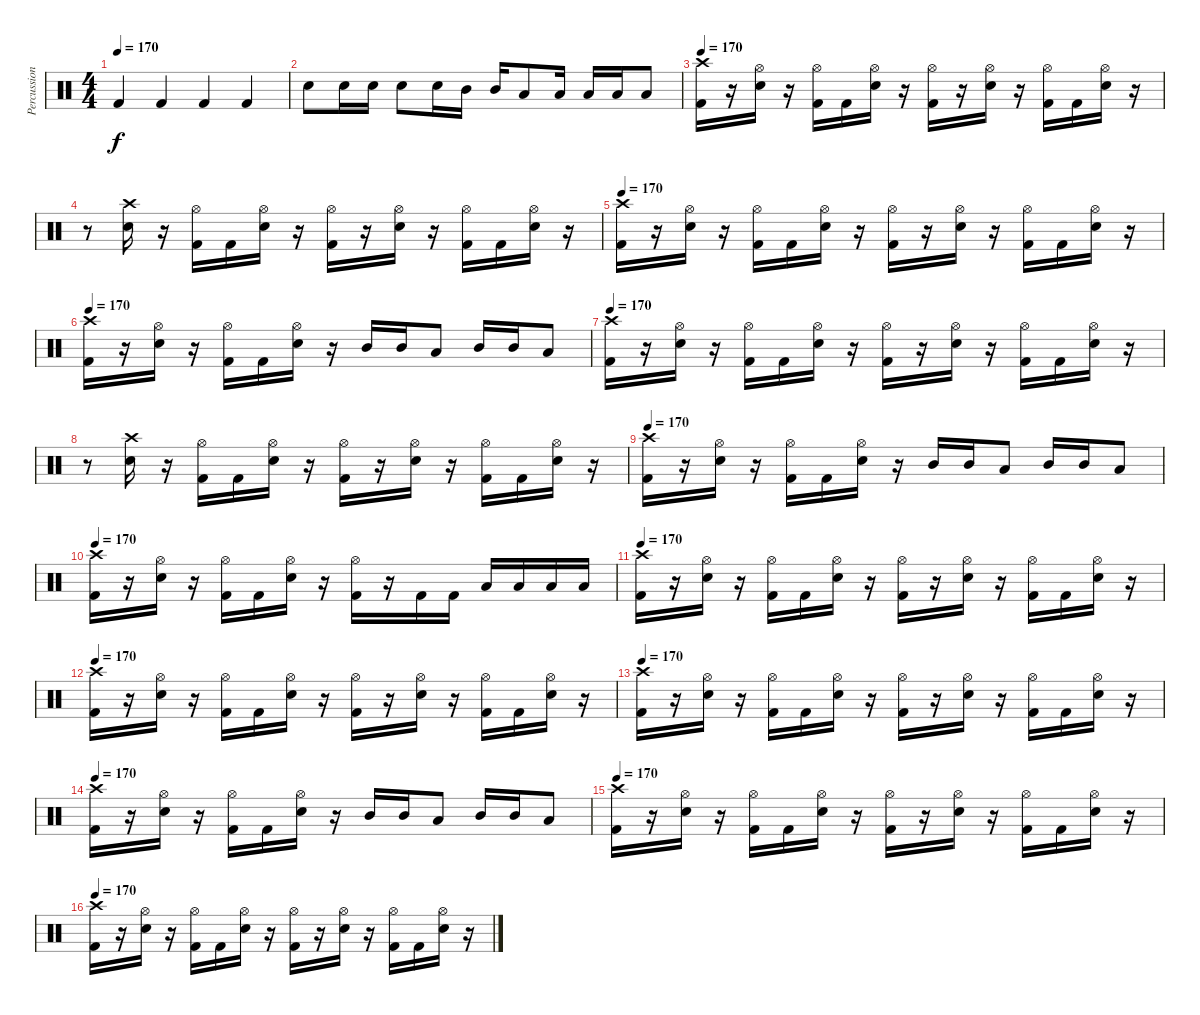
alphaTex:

\track ("Percussioni" "Percussion") {instrument percussion}
\staff {score}
\articulation defaults
\ts (4 4)
\tempo 170
\clef neutral
\ks c "Kick (hit) 2".4{dy f} "Kick (hit) 2".4 "Kick (hit) 2".4 "Kick (hit) 2".4
|
"Snare (hit) 2".8 "Snare (hit) 2".16 "Snare (hit) 2".16 "Snare (hit) 2".8 "Snare (hit) 2".16 "Mid Tom (hit)".16 "Mid Tom (hit)".16 "Low Tom (hit)".8 "Low Tom (hit)".16 "Low Tom (hit)".16 "Low Tom (hit)".16 "Low Tom (hit)".8 |
\tempo 170
("Kick (hit) 2" "Crash high (hit)").16 r.16 ("Snare (hit) 2" "Hi-Hat (open)").16 r.16 ("Kick (hit) 2" "Hi-Hat (open)").16 "Kick (hit) 2".16 ("Snare (hit) 2" "Hi-Hat (open)").16 r.16 ("Kick (hit) 2" "Hi-Hat (open)").16 r.16 ("Snare (hit) 2" "Hi-Hat (open)").16 r.16 ("Kick (hit) 2" "Hi-Hat (open)").16 "Kick (hit) 2".16 ("Snare (hit) 2" "Hi-Hat (open)").16 r.16 |
r.8 ("Snare (hit) 2" "Crash high (hit)").16 r.16 ("Kick (hit) 2" "Hi-Hat (open)").16 "Kick (hit) 2".16 ("Snare (hit) 2" "Hi-Hat (open)").16 r.16 ("Kick (hit) 2" "Hi-Hat (open)").16 r.16 ("Snare (hit) 2" "Hi-Hat (open)").16 r.16 ("Kick (hit) 2" "Hi-Hat (open)").16 "Kick (hit) 2".16 ("Snare (hit) 2" "Hi-Hat (open)").16 r.16 |
\tempo 170
("Kick (hit) 2" "Crash high (hit)").16 r.16 ("Snare (hit) 2" "Hi-Hat (open)").16 r.16 ("Kick (hit) 2" "Hi-Hat (open)").16 "Kick (hit) 2".16 ("Snare (hit) 2" "Hi-Hat (open)").16 r.16 ("Kick (hit) 2" "Hi-Hat (open)").16 r.16 ("Snare (hit) 2" "Hi-Hat (open)").16 r.16 ("Kick (hit) 2" "Hi-Hat (open)").16 "Kick (hit) 2".16 ("Snare (hit) 2" "Hi-Hat (open)").16 r.16 |
\tempo 170
("Kick (hit) 2" "Crash high (hit)").16 r.16 ("Snare (hit) 2" "Hi-Hat (open)").16 r.16 ("Kick (hit) 2" "Hi-Hat (open)").16 "Kick (hit) 2".16 ("Snare (hit) 2" "Hi-Hat (open)").16 r.16 "Mid Tom (hit)".16 "Mid Tom (hit)".16 "Low Tom (hit)".8 "Mid Tom (hit)".16 "Mid Tom (hit)".16 "Low Tom (hit)".8 |
\tempo 170
("Kick (hit) 2" "Crash high (hit)").16 r.16 ("Snare (hit) 2" "Hi-Hat (open)").16 r.16 ("Kick (hit) 2" "Hi-Hat (open)").16 "Kick (hit) 2".16 ("Snare (hit) 2" "Hi-Hat (open)").16 r.16 ("Kick (hit) 2" "Hi-Hat (open)").16 r.16 ("Snare (hit) 2" "Hi-Hat (open)").16 r.16 ("Kick (hit) 2" "Hi-Hat (open)").16 "Kick (hit) 2".16 ("Snare (hit) 2" "Hi-Hat (open)").16 r.16 |
r.8 ("Snare (hit) 2" "Crash high (hit)").16 r.16 ("Kick (hit) 2" "Hi-Hat (open)").16 "Kick (hit) 2".16 ("Snare (hit) 2" "Hi-Hat (open)").16 r.16 ("Kick (hit) 2" "Hi-Hat (open)").16 r.16 ("Snare (hit) 2" "Hi-Hat (open)").16 r.16 ("Kick (hit) 2" "Hi-Hat (open)").16 "Kick (hit) 2".16 ("Snare (hit) 2" "Hi-Hat (open)").16 r.16 |
\tempo 170
("Kick (hit) 2" "Crash high (hit)").16 r.16 ("Snare (hit) 2" "Hi-Hat (open)").16 r.16 ("Kick (hit) 2" "Hi-Hat (open)").16 "Kick (hit) 2".16 ("Snare (hit) 2" "Hi-Hat (open)").16 r.16 "Mid Tom (hit)".16 "Mid Tom (hit)".16 "Low Tom (hit)".8 "Mid Tom (hit)".16 "Mid Tom (hit)".16 "Low Tom (hit)".8 |
\tempo 170
("Kick (hit) 2" "Crash high (hit)").16 r.16 ("Snare (hit) 2" "Hi-Hat (open)").16 r.16 ("Kick (hit) 2" "Hi-Hat (open)").16 "Kick (hit) 2".16 ("Snare (hit) 2" "Hi-Hat (open)").16 r.16 ("Kick (hit) 2" "Hi-Hat (open)").16 r.16 "Kick (hit) 2".16 "Kick (hit) 2".16 "Low Tom (hit)".16 "Low Tom (hit)".16 "Low Tom (hit)".16 "Low Tom (hit)".16 |
\tempo 170
("Kick (hit) 2" "Crash high (hit)").16 r.16 ("Snare (hit) 2" "Hi-Hat (open)").16 r.16 ("Kick (hit) 2" "Hi-Hat (open)").16 "Kick (hit) 2".16 ("Snare (hit) 2" "Hi-Hat (open)").16 r.16 ("Kick (hit) 2" "Hi-Hat (open)").16 r.16 ("Snare (hit) 2" "Hi-Hat (open)").16 r.16 ("Kick (hit) 2" "Hi-Hat (open)").16 "Kick (hit) 2".16 ("Snare (hit) 2" "Hi-Hat (open)").16 r.16 |
\tempo 170
("Kick (hit) 2" "Crash high (hit)").16 r.16 ("Snare (hit) 2" "Hi-Hat (open)").16 r.16 ("Kick (hit) 2" "Hi-Hat (open)").16 "Kick (hit) 2".16 ("Snare (hit) 2" "Hi-Hat (open)").16 r.16 ("Kick (hit) 2" "Hi-Hat (open)").16 r.16 ("Snare (hit) 2" "Hi-Hat (open)").16 r.16 ("Kick (hit) 2" "Hi-Hat (open)").16 "Kick (hit) 2".16 ("Snare (hit) 2" "Hi-Hat (open)").16 r.16 |
\tempo 170
("Kick (hit) 2" "Crash high (hit)").16 r.16 ("Snare (hit) 2" "Hi-Hat (open)").16 r.16 ("Kick (hit) 2" "Hi-Hat (open)").16 "Kick (hit) 2".16 ("Snare (hit) 2" "Hi-Hat (open)").16 r.16 ("Kick (hit) 2" "Hi-Hat (open)").16 r.16 ("Snare (hit) 2" "Hi-Hat (open)").16 r.16 ("Kick (hit) 2" "Hi-Hat (open)").16 "Kick (hit) 2".16 ("Snare (hit) 2" "Hi-Hat (open)").16 r.16 |
\tempo 170
("Kick (hit) 2" "Crash high (hit)").16 r.16 ("Snare (hit) 2" "Hi-Hat (open)").16 r.16 ("Kick (hit) 2" "Hi-Hat (open)").16 "Kick (hit) 2".16 ("Snare (hit) 2" "Hi-Hat (open)").16 r.16 "Mid Tom (hit)".16 "Mid Tom (hit)".16 "Low Tom (hit)".8 "Mid Tom (hit)".16 "Mid Tom (hit)".16 "Low Tom (hit)".8 |
\tempo 170
("Kick (hit) 2" "Crash high (hit)").16 r.16 ("Snare (hit) 2" "Hi-Hat (open)").16 r.16 ("Kick (hit) 2" "Hi-Hat (open)").16 "Kick (hit) 2".16 ("Snare (hit) 2" "Hi-Hat (open)").16 r.16 ("Kick (hit) 2" "Hi-Hat (open)").16 r.16 ("Snare (hit) 2" "Hi-Hat (open)").16 r.16 ("Kick (hit) 2" "Hi-Hat (open)").16 "Kick (hit) 2".16 ("Snare (hit) 2" "Hi-Hat (open)").16 r.16 |
\tempo 170
("Kick (hit) 2" "Crash high (hit)").16 r.16 ("Snare (hit) 2" "Hi-Hat (open)").16 r.16 ("Kick (hit) 2" "Hi-Hat (open)").16 "Kick (hit) 2".16 ("Snare (hit) 2" "Hi-Hat (open)").16 r.16 ("Kick (hit) 2" "Hi-Hat (open)").16 r.16 ("Snare (hit) 2" "Hi-Hat (open)").16 r.16 ("Kick (hit) 2" "Hi-Hat (open)").16 "Kick (hit) 2".16 ("Snare (hit) 2" "Hi-Hat (open)").16 r.16
